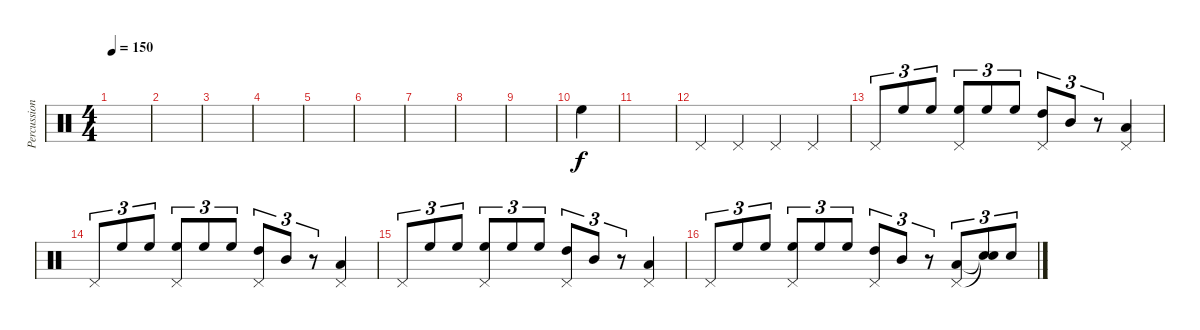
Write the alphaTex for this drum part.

\track ("Percussions" "Percussion") {instrument percussion}
\staff {score}
\articulation defaults
\ts (4 4)
\tempo 150
\clef neutral
\ks c
|
|
|
|
|
|
|
|
|
"High Floor Tom (hit)".4 |
|
"Pedal Hi-Hat (hit)".4 "Pedal Hi-Hat (hit)".4 "Pedal Hi-Hat (hit)".4 "Pedal Hi-Hat (hit)".4 |
"Pedal Hi-Hat (hit)".8{tu (3 2)} "High Floor Tom (hit)".8{tu (3 2)} "High Floor Tom (hit)".8{tu (3 2)} ("High Floor Tom (hit)" "Pedal Hi-Hat (hit)").8{tu (3 2)} "High Floor Tom (hit)".8{tu (3 2)} "High Floor Tom (hit)".8{tu (3 2)} ("High Tom (hit)" "Pedal Hi-Hat (hit)").8{tu (3 2)} "Mid Tom (hit)".8{tu (3 2)} r.8{tu (3 2)} ("Low Tom (hit)" "Pedal Hi-Hat (hit)").4 |
"Pedal Hi-Hat (hit)".8{tu (3 2)} "High Floor Tom (hit)".8{tu (3 2)} "High Floor Tom (hit)".8{tu (3 2)} ("High Floor Tom (hit)" "Pedal Hi-Hat (hit)").8{tu (3 2)} "High Floor Tom (hit)".8{tu (3 2)} "High Floor Tom (hit)".8{tu (3 2)} ("High Tom (hit)" "Pedal Hi-Hat (hit)").8{tu (3 2)} "Mid Tom (hit)".8{tu (3 2)} r.8{tu (3 2)} ("Low Tom (hit)" "Pedal Hi-Hat (hit)").4 |
"Pedal Hi-Hat (hit)".8{tu (3 2)} "High Floor Tom (hit)".8{tu (3 2)} "High Floor Tom (hit)".8{tu (3 2)} ("High Floor Tom (hit)" "Pedal Hi-Hat (hit)").8{tu (3 2)} "High Floor Tom (hit)".8{tu (3 2)} "High Floor Tom (hit)".8{tu (3 2)} ("High Tom (hit)" "Pedal Hi-Hat (hit)").8{tu (3 2)} "Mid Tom (hit)".8{tu (3 2)} r.8{tu (3 2)} ("Low Tom (hit)" "Pedal Hi-Hat (hit)").4 |
"Pedal Hi-Hat (hit)".8{tu (3 2)} "High Floor Tom (hit)".8{tu (3 2)} "High Floor Tom (hit)".8{tu (3 2)} ("High Floor Tom (hit)" "Pedal Hi-Hat (hit)").8{tu (3 2)} "High Floor Tom (hit)".8{tu (3 2)} "High Floor Tom (hit)".8{tu (3 2)} ("High Tom (hit)" "Pedal Hi-Hat (hit)").8{tu (3 2)} "Mid Tom (hit)".8{tu (3 2)} r.8{tu (3 2)} ("Low Tom (hit)" "Pedal Hi-Hat (hit)").8{tu (3 2)} ("Snare (hit)"{t} "Snare (hit)"{t}).8{tu (3 2)} "Electric Snare (hit)".8{tu (3 2)}
